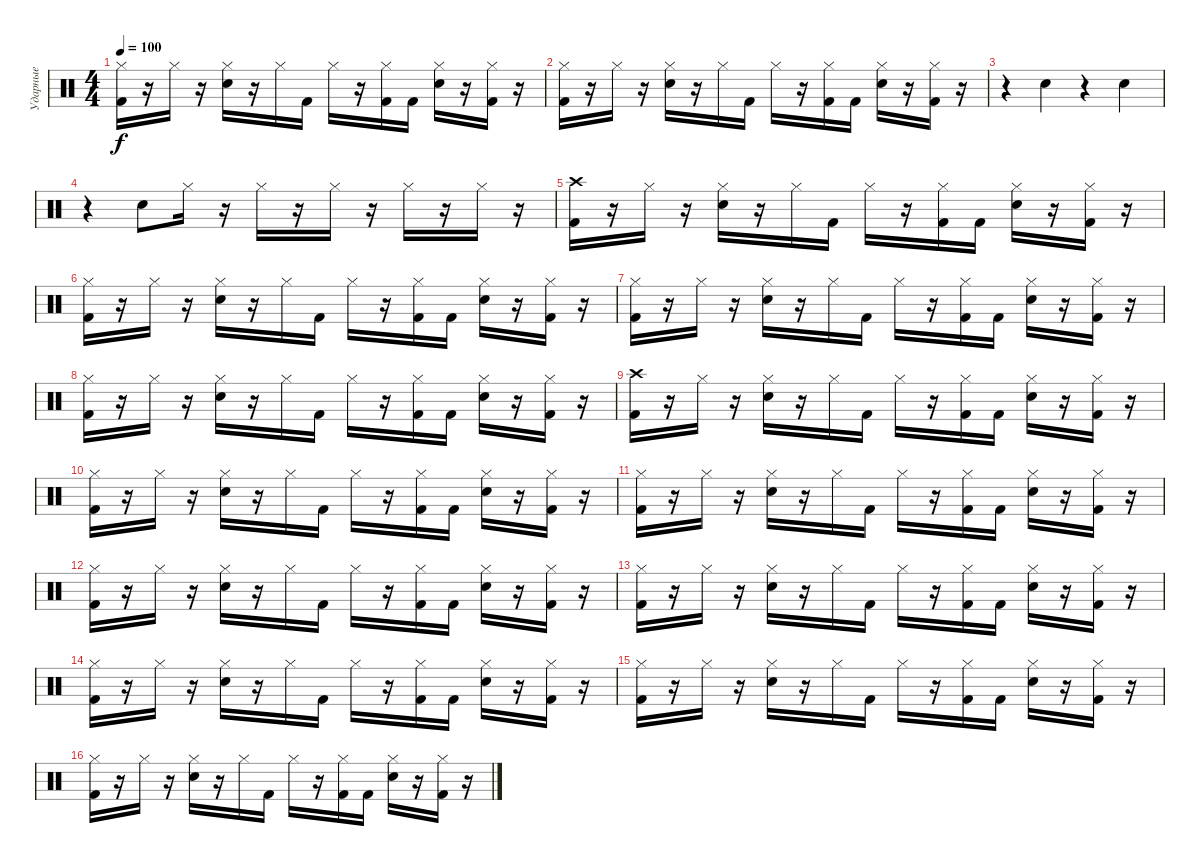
\track ("Ударные" "Ударные") {instrument percussion}
\staff {score}
\articulation defaults
\ts (4 4)
\tempo 100
\clef neutral
\ks c
("Kick (hit) 2" "Hi-Hat (closed)").16{dy f} r.16 "Hi-Hat (closed)".16 r.16 ("Electric Snare (hit)" "Hi-Hat (closed)").16 r.16 "Hi-Hat (closed)".16 "Kick (hit) 2".16 "Hi-Hat (closed)".16 r.16 ("Kick (hit) 2" "Hi-Hat (closed)").16 "Kick (hit) 2".16 ("Electric Snare (hit)" "Hi-Hat (closed)").16 r.16 ("Kick (hit) 2" "Hi-Hat (closed)").16 r.16 |
("Kick (hit) 2" "Hi-Hat (closed)").16 r.16 "Hi-Hat (closed)".16 r.16 ("Electric Snare (hit)" "Hi-Hat (closed)").16 r.16 "Hi-Hat (closed)".16 "Kick (hit) 2".16 "Hi-Hat (closed)".16 r.16 ("Kick (hit) 2" "Hi-Hat (closed)").16 "Kick (hit) 2".16 ("Electric Snare (hit)" "Hi-Hat (closed)").16 r.16 ("Kick (hit) 2" "Hi-Hat (closed)").16 r.16 |
r.4 "Electric Snare (hit)".4 r.4 "Electric Snare (hit)".4 |
r.4 "Electric Snare (hit)".8 "Hi-Hat (closed)".16 r.16 "Hi-Hat (closed)".16 r.16 "Hi-Hat (closed)".16 r.16 "Hi-Hat (closed)".16 r.16 "Hi-Hat (closed)".16 r.16 |
("Kick (hit) 2" "Crash high (hit)").16 r.16 "Hi-Hat (closed)".16 r.16 ("Electric Snare (hit)" "Hi-Hat (closed)").16 r.16 "Hi-Hat (closed)".16 "Kick (hit) 2".16 "Hi-Hat (closed)".16 r.16 ("Kick (hit) 2" "Hi-Hat (closed)").16 "Kick (hit) 2".16 ("Electric Snare (hit)" "Hi-Hat (closed)").16 r.16 ("Kick (hit) 2" "Hi-Hat (closed)").16 r.16 |
("Kick (hit) 2" "Hi-Hat (closed)").16 r.16 "Hi-Hat (closed)".16 r.16 ("Electric Snare (hit)" "Hi-Hat (closed)").16 r.16 "Hi-Hat (closed)".16 "Kick (hit) 2".16 "Hi-Hat (closed)".16 r.16 ("Kick (hit) 2" "Hi-Hat (closed)").16 "Kick (hit) 2".16 ("Electric Snare (hit)" "Hi-Hat (closed)").16 r.16 ("Kick (hit) 2" "Hi-Hat (closed)").16 r.16 |
("Kick (hit) 2" "Hi-Hat (closed)").16 r.16 "Hi-Hat (closed)".16 r.16 ("Electric Snare (hit)" "Hi-Hat (closed)").16 r.16 "Hi-Hat (closed)".16 "Kick (hit) 2".16 "Hi-Hat (closed)".16 r.16 ("Kick (hit) 2" "Hi-Hat (closed)").16 "Kick (hit) 2".16 ("Electric Snare (hit)" "Hi-Hat (closed)").16 r.16 ("Kick (hit) 2" "Hi-Hat (closed)").16 r.16 |
("Kick (hit) 2" "Hi-Hat (closed)").16 r.16 "Hi-Hat (closed)".16 r.16 ("Electric Snare (hit)" "Hi-Hat (closed)").16 r.16 "Hi-Hat (closed)".16 "Kick (hit) 2".16 "Hi-Hat (closed)".16 r.16 ("Kick (hit) 2" "Hi-Hat (closed)").16 "Kick (hit) 2".16 ("Electric Snare (hit)" "Hi-Hat (closed)").16 r.16 ("Kick (hit) 2" "Hi-Hat (closed)").16 r.16 |
("Kick (hit) 2" "Crash high (hit)").16 r.16 "Hi-Hat (closed)".16 r.16 ("Electric Snare (hit)" "Hi-Hat (closed)").16 r.16 "Hi-Hat (closed)".16 "Kick (hit) 2".16 "Hi-Hat (closed)".16 r.16 ("Kick (hit) 2" "Hi-Hat (closed)").16 "Kick (hit) 2".16 ("Electric Snare (hit)" "Hi-Hat (closed)").16 r.16 ("Kick (hit) 2" "Hi-Hat (closed)").16 r.16 |
("Kick (hit) 2" "Hi-Hat (closed)").16 r.16 "Hi-Hat (closed)".16 r.16 ("Electric Snare (hit)" "Hi-Hat (closed)").16 r.16 "Hi-Hat (closed)".16 "Kick (hit) 2".16 "Hi-Hat (closed)".16 r.16 ("Kick (hit) 2" "Hi-Hat (closed)").16 "Kick (hit) 2".16 ("Electric Snare (hit)" "Hi-Hat (closed)").16 r.16 ("Kick (hit) 2" "Hi-Hat (closed)").16 r.16 |
("Kick (hit) 2" "Hi-Hat (closed)").16 r.16 "Hi-Hat (closed)".16 r.16 ("Electric Snare (hit)" "Hi-Hat (closed)").16 r.16 "Hi-Hat (closed)".16 "Kick (hit) 2".16 "Hi-Hat (closed)".16 r.16 ("Kick (hit) 2" "Hi-Hat (closed)").16 "Kick (hit) 2".16 ("Electric Snare (hit)" "Hi-Hat (closed)").16 r.16 ("Kick (hit) 2" "Hi-Hat (closed)").16 r.16 |
("Kick (hit) 2" "Hi-Hat (closed)").16 r.16 "Hi-Hat (closed)".16 r.16 ("Electric Snare (hit)" "Hi-Hat (closed)").16 r.16 "Hi-Hat (closed)".16 "Kick (hit) 2".16 "Hi-Hat (closed)".16 r.16 ("Kick (hit) 2" "Hi-Hat (closed)").16 "Kick (hit) 2".16 ("Electric Snare (hit)" "Hi-Hat (closed)").16 r.16 ("Kick (hit) 2" "Hi-Hat (closed)").16 r.16 |
("Kick (hit) 2" "Hi-Hat (closed)").16 r.16 "Hi-Hat (closed)".16 r.16 ("Electric Snare (hit)" "Hi-Hat (closed)").16 r.16 "Hi-Hat (closed)".16 "Kick (hit) 2".16 "Hi-Hat (closed)".16 r.16 ("Kick (hit) 2" "Hi-Hat (closed)").16 "Kick (hit) 2".16 ("Electric Snare (hit)" "Hi-Hat (closed)").16 r.16 ("Kick (hit) 2" "Hi-Hat (closed)").16 r.16 |
("Kick (hit) 2" "Hi-Hat (closed)").16 r.16 "Hi-Hat (closed)".16 r.16 ("Electric Snare (hit)" "Hi-Hat (closed)").16 r.16 "Hi-Hat (closed)".16 "Kick (hit) 2".16 "Hi-Hat (closed)".16 r.16 ("Kick (hit) 2" "Hi-Hat (closed)").16 "Kick (hit) 2".16 ("Electric Snare (hit)" "Hi-Hat (closed)").16 r.16 ("Kick (hit) 2" "Hi-Hat (closed)").16 r.16 |
("Kick (hit) 2" "Hi-Hat (closed)").16 r.16 "Hi-Hat (closed)".16 r.16 ("Electric Snare (hit)" "Hi-Hat (closed)").16 r.16 "Hi-Hat (closed)".16 "Kick (hit) 2".16 "Hi-Hat (closed)".16 r.16 ("Kick (hit) 2" "Hi-Hat (closed)").16 "Kick (hit) 2".16 ("Electric Snare (hit)" "Hi-Hat (closed)").16 r.16 ("Kick (hit) 2" "Hi-Hat (closed)").16 r.16 |
("Kick (hit) 2" "Hi-Hat (closed)").16 r.16 "Hi-Hat (closed)".16 r.16 ("Electric Snare (hit)" "Hi-Hat (closed)").16 r.16 "Hi-Hat (closed)".16 "Kick (hit) 2".16 "Hi-Hat (closed)".16 r.16 ("Kick (hit) 2" "Hi-Hat (closed)").16 "Kick (hit) 2".16 ("Electric Snare (hit)" "Hi-Hat (closed)").16 r.16 ("Kick (hit) 2" "Hi-Hat (closed)").16 r.16
